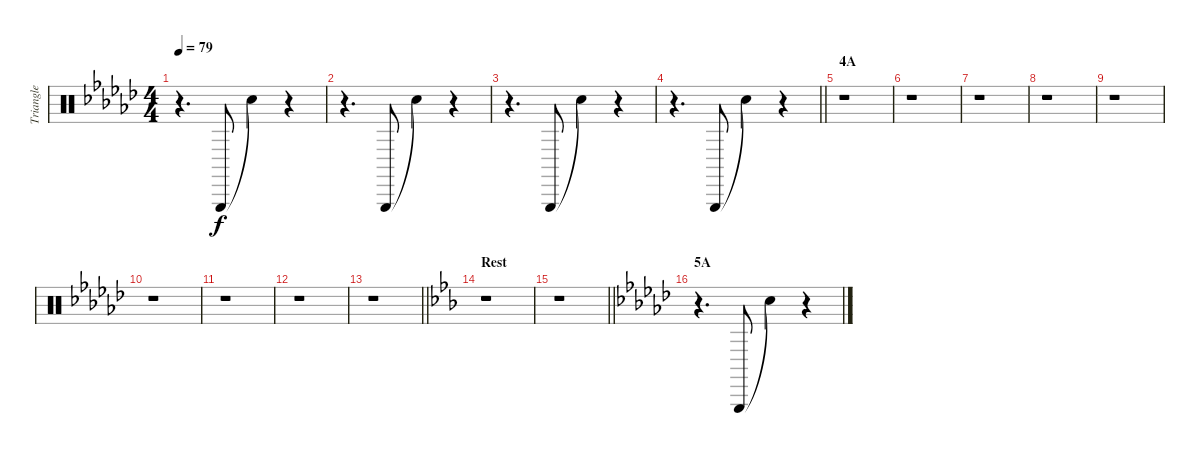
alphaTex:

\track ("Triangle" "Triangle") {instrument percussion}
\staff {score}
\articulation defaults
\ts (4 4)
\tempo 79
\clef neutral
\ks gb
r.4{d dy f} "Triangle (hit)".8 "Snare (hit)"{t}.4 r.4 |
r.4{d} "Triangle (hit)".8 "Snare (hit)"{t}.4 r.4 |
r.4{d} "Triangle (hit)".8 "Snare (hit)"{t}.4 r.4 |
\barLineRight lightlight
r.4{d} "Triangle (hit)".8 "Snare (hit)"{t}.4 r.4 |
\section ("" "4A")
r.1 |
r.1 |
r.1 |
r.1 |
r.1 |
r.1 |
r.1 |
r.1 |
\barLineRight lightlight
r.1 |
\section ("" "Rest")
\ks eb
r.1 |
\barLineRight lightlight
r.1 |
\section ("" "5A")
\ks gb
r.4{d} "Triangle (hit)".8 "Snare (hit)"{t}.4 r.4
